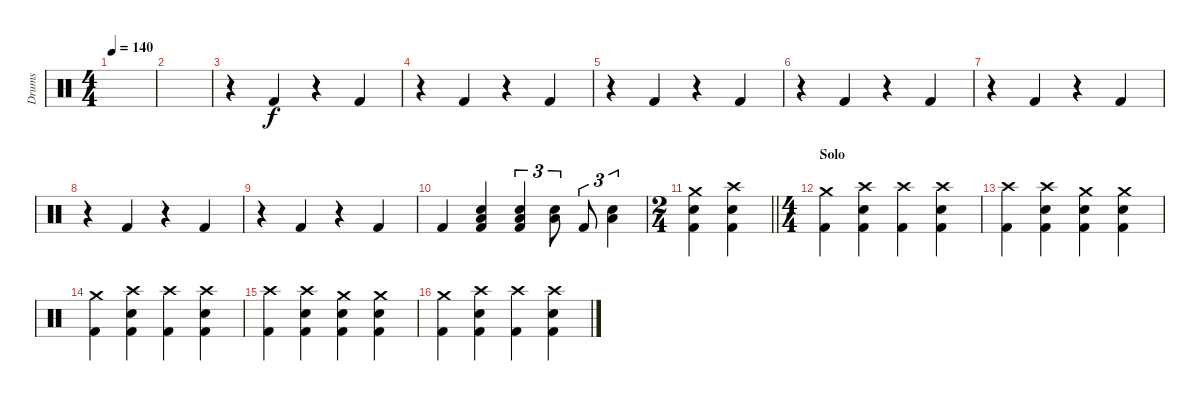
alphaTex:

\track ("Drums" "Drums") {instrument percussion}
\staff {score}
\articulation defaults
\ts (4 4)
\tempo 140
\clef neutral
\ks c
|
|
r.4 "Kick (hit) 2".4 r.4 "Kick (hit) 2".4 |
r.4 "Kick (hit) 2".4 r.4 "Kick (hit) 2".4 |
r.4 "Kick (hit) 2".4 r.4 "Kick (hit) 2".4 |
r.4 "Kick (hit) 2".4 r.4 "Kick (hit) 2".4 |
r.4 "Kick (hit) 2".4 r.4 "Kick (hit) 2".4 |
r.4 "Kick (hit) 2".4 r.4 "Kick (hit) 2".4 |
r.4 "Kick (hit) 2".4 r.4 "Kick (hit) 2".4 |
"Kick (hit) 2".4 ("Low Floor Tom (hit)" "Electric Snare (hit)" "Kick (hit) 2").4 ("Electric Snare (hit)" "Low Floor Tom (hit)" "Kick (hit) 2").4{tu (3 2)} ("Electric Snare (hit)" "Low Floor Tom (hit)").8{tu (3 2)} "Kick (hit) 2".8{tu (3 2)} ("Electric Snare (hit)" "Low Floor Tom (hit)").4{tu (3 2)} |
\ts (2 4)
\barLineRight lightlight
("Crash medium (hit)" "Electric Snare (hit)" "Kick (hit) 2").4 ("Crash high (hit)" "Electric Snare (hit)" "Kick (hit) 2").4 |
\ts (4 4)
\section ("" "Solo")
("Kick (hit) 2" "Crash medium (hit)").4 ("Crash high (hit)" "Electric Snare (hit)" "Kick (hit) 2").4 ("Crash high (hit)" "Kick (hit) 2").4 ("Crash high (hit)" "Electric Snare (hit)" "Kick (hit) 2").4 |
("Crash high (hit)" "Kick (hit) 2").4 ("Crash high (hit)" "Electric Snare (hit)" "Kick (hit) 2").4 ("Crash medium (hit)" "Electric Snare (hit)" "Kick (hit) 2").4 ("Crash medium (hit)" "Electric Snare (hit)" "Kick (hit) 2").4 |
("Kick (hit) 2" "Crash medium (hit)").4 ("Crash high (hit)" "Electric Snare (hit)" "Kick (hit) 2").4 ("Crash high (hit)" "Kick (hit) 2").4 ("Crash high (hit)" "Electric Snare (hit)" "Kick (hit) 2").4 |
("Crash high (hit)" "Kick (hit) 2").4 ("Crash high (hit)" "Electric Snare (hit)" "Kick (hit) 2").4 ("Crash medium (hit)" "Electric Snare (hit)" "Kick (hit) 2").4 ("Crash medium (hit)" "Electric Snare (hit)" "Kick (hit) 2").4 |
("Kick (hit) 2" "Crash medium (hit)").4 ("Crash high (hit)" "Electric Snare (hit)" "Kick (hit) 2").4 ("Crash high (hit)" "Kick (hit) 2").4 ("Crash high (hit)" "Electric Snare (hit)" "Kick (hit) 2").4
